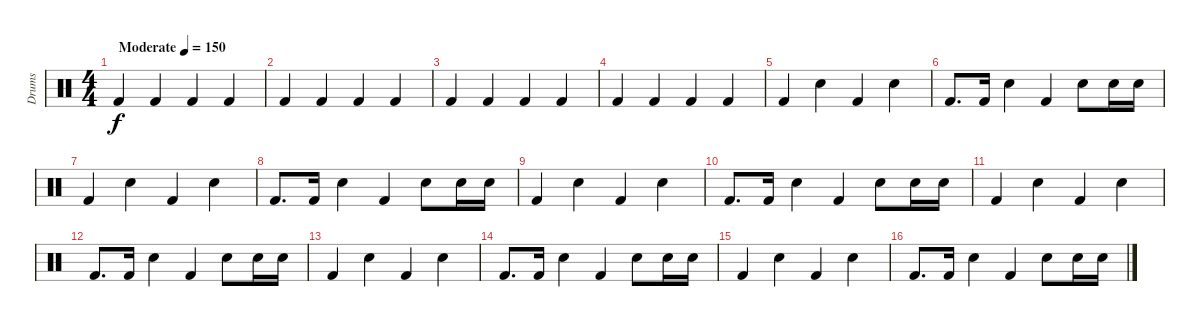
\track ("Drums" "Drums") {instrument percussion}
\staff {score}
\articulation defaults
\ts (4 4)
\tempo (150 "Moderate")
\clef neutral
\ks c "Kick (hit) 2".4{dy f} "Kick (hit) 2".4 "Kick (hit) 2".4 "Kick (hit) 2".4
|
"Kick (hit) 2".4 "Kick (hit) 2".4 "Kick (hit) 2".4 "Kick (hit) 2".4 |
"Kick (hit) 2".4 "Kick (hit) 2".4 "Kick (hit) 2".4 "Kick (hit) 2".4 |
"Kick (hit) 2".4 "Kick (hit) 2".4 "Kick (hit) 2".4 "Kick (hit) 2".4 |
"Kick (hit) 2".4 "Electric Snare (hit)".4 "Kick (hit) 2".4 "Electric Snare (hit)".4 |
"Kick (hit) 2".8{d} "Kick (hit) 2".16 "Electric Snare (hit)".4 "Kick (hit) 2".4 "Electric Snare (hit)".8 "Electric Snare (hit)".16 "Electric Snare (hit)".16 |
"Kick (hit) 2".4 "Electric Snare (hit)".4 "Kick (hit) 2".4 "Electric Snare (hit)".4 |
"Kick (hit) 2".8{d} "Kick (hit) 2".16 "Electric Snare (hit)".4 "Kick (hit) 2".4 "Electric Snare (hit)".8 "Electric Snare (hit)".16 "Electric Snare (hit)".16 |
"Kick (hit) 2".4 "Electric Snare (hit)".4 "Kick (hit) 2".4 "Electric Snare (hit)".4 |
"Kick (hit) 2".8{d} "Kick (hit) 2".16 "Electric Snare (hit)".4 "Kick (hit) 2".4 "Electric Snare (hit)".8 "Electric Snare (hit)".16 "Electric Snare (hit)".16 |
"Kick (hit) 2".4 "Electric Snare (hit)".4 "Kick (hit) 2".4 "Electric Snare (hit)".4 |
"Kick (hit) 2".8{d} "Kick (hit) 2".16 "Electric Snare (hit)".4 "Kick (hit) 2".4 "Electric Snare (hit)".8 "Electric Snare (hit)".16 "Electric Snare (hit)".16 |
"Kick (hit) 2".4 "Electric Snare (hit)".4 "Kick (hit) 2".4 "Electric Snare (hit)".4 |
"Kick (hit) 2".8{d} "Kick (hit) 2".16 "Electric Snare (hit)".4 "Kick (hit) 2".4 "Electric Snare (hit)".8 "Electric Snare (hit)".16 "Electric Snare (hit)".16 |
"Kick (hit) 2".4 "Electric Snare (hit)".4 "Kick (hit) 2".4 "Electric Snare (hit)".4 |
"Kick (hit) 2".8{d} "Kick (hit) 2".16 "Electric Snare (hit)".4 "Kick (hit) 2".4 "Electric Snare (hit)".8 "Electric Snare (hit)".16 "Electric Snare (hit)".16
